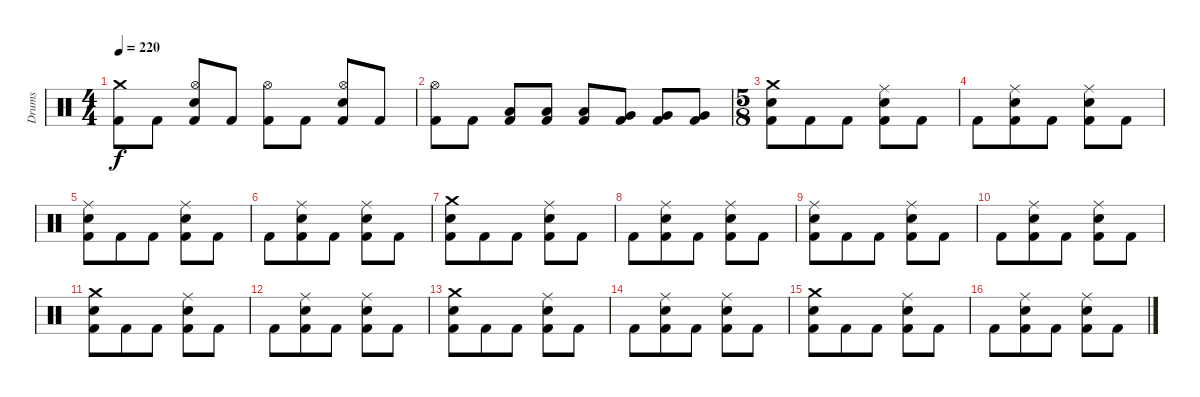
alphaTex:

\track ("Drums" "Drums") {instrument percussion}
\staff {score}
\articulation defaults
\ts (4 4)
\tempo 220
\clef neutral
\ks c
("Crash medium (hit)" "Kick (hit) 2").8{dy f} "Kick (hit) 2".8 ("Hi-Hat (open)" "Electric Snare (hit)" "Kick (hit) 2").8 "Kick (hit) 2".8 ("Hi-Hat (open)" "Kick (hit) 2").8 "Kick (hit) 2".8 ("Hi-Hat (open)" "Electric Snare (hit)" "Kick (hit) 2").8 "Kick (hit) 2".8 |
("Hi-Hat (open)" "Kick (hit) 2").8 "Kick (hit) 2".8 ("Low Tom (hit)" "Kick (hit) 2").8 ("Low Tom (hit)" "Kick (hit) 2").8 ("Low Tom (hit)" "Kick (hit) 2").8 ("Very Low Tom (hit)" "Kick (hit) 2").8 ("Very Low Tom (hit)" "Kick (hit) 2").8 ("Very Low Tom (hit)" "Kick (hit) 2").8 |
\ts (5 8)
("Crash medium (hit)" "Electric Snare (hit)" "Kick (hit) 2").8 "Kick (hit) 2".8 "Kick (hit) 2".8 ("Ride (middle)" "Electric Snare (hit)" "Kick (hit) 2").8 "Kick (hit) 2".8 |
"Kick (hit) 2".8 ("Ride (middle)" "Electric Snare (hit)" "Kick (hit) 2").8 "Kick (hit) 2".8 ("Ride (middle)" "Electric Snare (hit)" "Kick (hit) 2").8 "Kick (hit) 2".8 |
("Ride (middle)" "Electric Snare (hit)" "Kick (hit) 2").8 "Kick (hit) 2".8 "Kick (hit) 2".8 ("Ride (middle)" "Electric Snare (hit)" "Kick (hit) 2").8 "Kick (hit) 2".8 |
"Kick (hit) 2".8 ("Ride (middle)" "Electric Snare (hit)" "Kick (hit) 2").8 "Kick (hit) 2".8 ("Ride (middle)" "Electric Snare (hit)" "Kick (hit) 2").8 "Kick (hit) 2".8 |
("Crash medium (hit)" "Electric Snare (hit)" "Kick (hit) 2").8 "Kick (hit) 2".8 "Kick (hit) 2".8 ("Ride (middle)" "Electric Snare (hit)" "Kick (hit) 2").8 "Kick (hit) 2".8 |
"Kick (hit) 2".8 ("Ride (middle)" "Electric Snare (hit)" "Kick (hit) 2").8 "Kick (hit) 2".8 ("Ride (middle)" "Electric Snare (hit)" "Kick (hit) 2").8 "Kick (hit) 2".8 |
("Ride (middle)" "Electric Snare (hit)" "Kick (hit) 2").8 "Kick (hit) 2".8 "Kick (hit) 2".8 ("Ride (middle)" "Electric Snare (hit)" "Kick (hit) 2").8 "Kick (hit) 2".8 |
"Kick (hit) 2".8 ("Ride (middle)" "Electric Snare (hit)" "Kick (hit) 2").8 "Kick (hit) 2".8 ("Ride (middle)" "Electric Snare (hit)" "Kick (hit) 2").8 "Kick (hit) 2".8 |
("Crash medium (hit)" "Electric Snare (hit)" "Kick (hit) 2").8 "Kick (hit) 2".8 "Kick (hit) 2".8 ("Ride (middle)" "Electric Snare (hit)" "Kick (hit) 2").8 "Kick (hit) 2".8 |
"Kick (hit) 2".8 ("Ride (middle)" "Electric Snare (hit)" "Kick (hit) 2").8 "Kick (hit) 2".8 ("Ride (middle)" "Electric Snare (hit)" "Kick (hit) 2").8 "Kick (hit) 2".8 |
("Crash medium (hit)" "Electric Snare (hit)" "Kick (hit) 2").8 "Kick (hit) 2".8 "Kick (hit) 2".8 ("Ride (middle)" "Electric Snare (hit)" "Kick (hit) 2").8 "Kick (hit) 2".8 |
"Kick (hit) 2".8 ("Ride (middle)" "Electric Snare (hit)" "Kick (hit) 2").8 "Kick (hit) 2".8 ("Ride (middle)" "Electric Snare (hit)" "Kick (hit) 2").8 "Kick (hit) 2".8 |
("Crash medium (hit)" "Electric Snare (hit)" "Kick (hit) 2").8 "Kick (hit) 2".8 "Kick (hit) 2".8 ("Ride (middle)" "Electric Snare (hit)" "Kick (hit) 2").8 "Kick (hit) 2".8 |
"Kick (hit) 2".8 ("Ride (middle)" "Electric Snare (hit)" "Kick (hit) 2").8 "Kick (hit) 2".8 ("Ride (middle)" "Electric Snare (hit)" "Kick (hit) 2").8 "Kick (hit) 2".8
